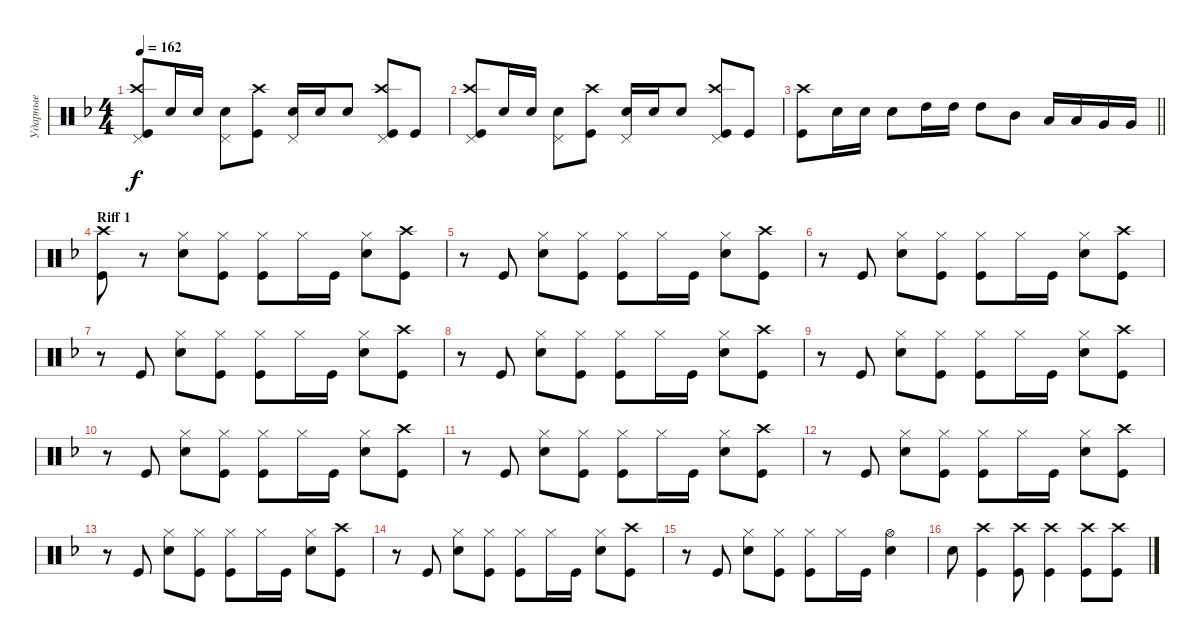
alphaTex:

\track ("Ударные" "Ударные") {instrument percussion}
\staff {score}
\articulation defaults
\ts (4 4)
\tempo 162
\clef neutral
\ks dminor
("Kick (hit)" "Crash high (hit)" "Pedal Hi-Hat (hit)").8{dy f} "Snare (hit) 2".16 "Snare (hit) 2".16 ("Snare (hit) 2" "Pedal Hi-Hat (hit)").8 ("Kick (hit)" "Crash high (hit)").8 ("Snare (hit) 2" "Pedal Hi-Hat (hit)").16 "Snare (hit) 2".16 "Snare (hit) 2".8 ("Kick (hit)" "Crash high (hit)" "Pedal Hi-Hat (hit)").8 "Kick (hit)".8 |
("Kick (hit)" "Crash high (hit)" "Pedal Hi-Hat (hit)").8 "Snare (hit) 2".16 "Snare (hit) 2".16 ("Snare (hit) 2" "Pedal Hi-Hat (hit)").8 ("Kick (hit)" "Crash high (hit)").8 ("Snare (hit) 2" "Pedal Hi-Hat (hit)").16 "Snare (hit) 2".16 "Snare (hit) 2".8 ("Kick (hit)" "Crash high (hit)" "Pedal Hi-Hat (hit)").8 "Kick (hit)".8 |
\barLineRight lightlight
("Kick (hit)" "Crash high (hit)").8 "Snare (hit) 2".16 "Snare (hit) 2".16 "Snare (hit) 2".8 "High Tom (hit)".16 "High Tom (hit)".16 "High Tom (hit)".8 "Mid Tom (hit)".8 "Low Tom (hit)".16 "Low Tom (hit)".16 "Very Low Tom (hit)".16 "Very Low Tom (hit)".16 |
\section ("" "Riff 1")
("Kick (hit)" "Crash high (hit)").8 r.8 ("Hi-Hat (closed)" "Snare (hit) 2").8 ("Hi-Hat (closed)" "Kick (hit)").8 ("Hi-Hat (closed)" "Kick (hit)").8 "Hi-Hat (closed)".16 "Kick (hit)".16 ("Hi-Hat (closed)" "Snare (hit) 2").8 ("Crash high (hit)" "Kick (hit)").8 |
r.8 "Kick (hit)".8 ("Hi-Hat (closed)" "Snare (hit) 2").8 ("Hi-Hat (closed)" "Kick (hit)").8 ("Hi-Hat (closed)" "Kick (hit)").8 "Hi-Hat (closed)".16 "Kick (hit)".16 ("Hi-Hat (closed)" "Snare (hit) 2").8 ("Crash high (hit)" "Kick (hit)").8 |
r.8 "Kick (hit)".8 ("Hi-Hat (closed)" "Snare (hit) 2").8 ("Hi-Hat (closed)" "Kick (hit)").8 ("Hi-Hat (closed)" "Kick (hit)").8 "Hi-Hat (closed)".16 "Kick (hit)".16 ("Hi-Hat (closed)" "Snare (hit) 2").8 ("Crash high (hit)" "Kick (hit)").8 |
r.8 "Kick (hit)".8 ("Hi-Hat (closed)" "Snare (hit) 2").8 ("Hi-Hat (closed)" "Kick (hit)").8 ("Hi-Hat (closed)" "Kick (hit)").8 "Hi-Hat (closed)".16 "Kick (hit)".16 ("Hi-Hat (closed)" "Snare (hit) 2").8 ("Crash high (hit)" "Kick (hit)").8 |
r.8 "Kick (hit)".8 ("Hi-Hat (closed)" "Snare (hit) 2").8 ("Hi-Hat (closed)" "Kick (hit)").8 ("Hi-Hat (closed)" "Kick (hit)").8 "Hi-Hat (closed)".16 "Kick (hit)".16 ("Hi-Hat (closed)" "Snare (hit) 2").8 ("Crash high (hit)" "Kick (hit)").8 |
r.8 "Kick (hit)".8 ("Hi-Hat (closed)" "Snare (hit) 2").8 ("Hi-Hat (closed)" "Kick (hit)").8 ("Hi-Hat (closed)" "Kick (hit)").8 "Hi-Hat (closed)".16 "Kick (hit)".16 ("Hi-Hat (closed)" "Snare (hit) 2").8 ("Crash high (hit)" "Kick (hit)").8 |
r.8 "Kick (hit)".8 ("Hi-Hat (closed)" "Snare (hit) 2").8 ("Hi-Hat (closed)" "Kick (hit)").8 ("Hi-Hat (closed)" "Kick (hit)").8 "Hi-Hat (closed)".16 "Kick (hit)".16 ("Hi-Hat (closed)" "Snare (hit) 2").8 ("Crash high (hit)" "Kick (hit)").8 |
r.8 "Kick (hit)".8 ("Hi-Hat (closed)" "Snare (hit) 2").8 ("Hi-Hat (closed)" "Kick (hit)").8 ("Hi-Hat (closed)" "Kick (hit)").8 "Hi-Hat (closed)".16 "Kick (hit)".16 ("Hi-Hat (closed)" "Snare (hit) 2").8 ("Crash high (hit)" "Kick (hit)").8 |
r.8 "Kick (hit)".8 ("Hi-Hat (closed)" "Snare (hit) 2").8 ("Hi-Hat (closed)" "Kick (hit)").8 ("Hi-Hat (closed)" "Kick (hit)").8 "Hi-Hat (closed)".16 "Kick (hit)".16 ("Hi-Hat (closed)" "Snare (hit) 2").8 ("Crash high (hit)" "Kick (hit)").8 |
r.8 "Kick (hit)".8 ("Hi-Hat (closed)" "Snare (hit) 2").8 ("Hi-Hat (closed)" "Kick (hit)").8 ("Hi-Hat (closed)" "Kick (hit)").8 "Hi-Hat (closed)".16 "Kick (hit)".16 ("Hi-Hat (closed)" "Snare (hit) 2").8 ("Crash high (hit)" "Kick (hit)").8 |
r.8 "Kick (hit)".8 ("Hi-Hat (closed)" "Snare (hit) 2").8 ("Hi-Hat (closed)" "Kick (hit)").8 ("Hi-Hat (closed)" "Kick (hit)").8 "Hi-Hat (closed)".16 "Kick (hit)".16 ("Hi-Hat (closed)" "Snare (hit) 2").8 ("Crash high (hit)" "Kick (hit)").8 |
r.8 "Kick (hit)".8 ("Hi-Hat (closed)" "Snare (hit) 2").8 ("Hi-Hat (closed)" "Kick (hit)").8 ("Hi-Hat (closed)" "Kick (hit)").8 "Hi-Hat (closed)".16 "Kick (hit)".16 ("Hi-Hat (open)" "Snare (hit) 2").4 |
"Snare (hit) 2".8 ("Kick (hit)" "Crash high (hit)").4 ("Kick (hit)" "Crash high (hit)").8 ("Kick (hit)" "Crash high (hit)").4 ("Kick (hit)" "Crash high (hit)").8 ("Kick (hit)" "Crash high (hit)").8
